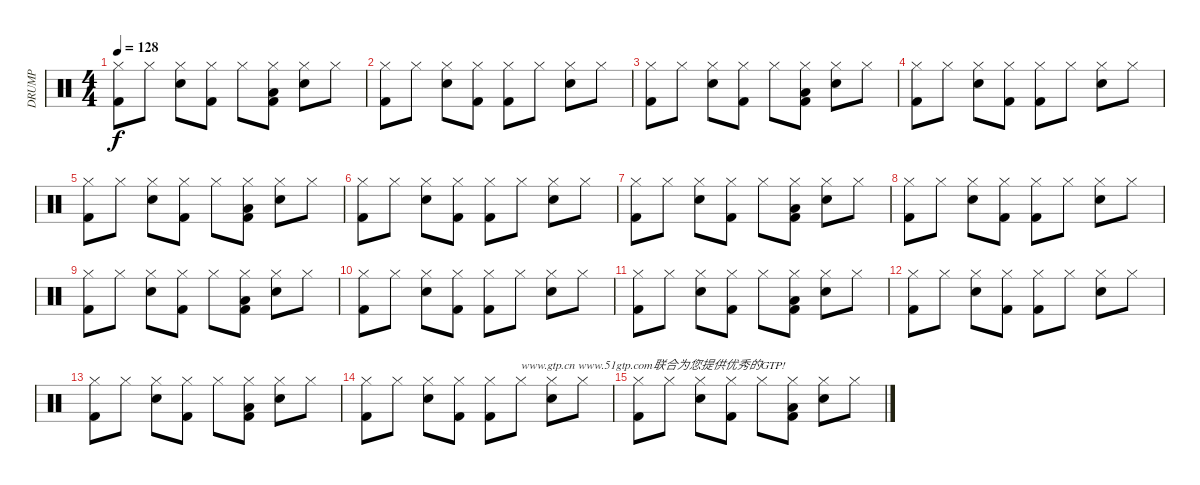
\track ("DRUMP" "DRUMP") {instrument percussion}
\staff {score}
\articulation defaults
\ts (4 4)
\tempo 128
\clef neutral
\ks c
("Hi-Hat (closed)" "Kick (hit) 2").8{dy f} "Hi-Hat (closed)".8 ("Hi-Hat (closed)" "Snare (hit) 2").8 ("Hi-Hat (closed)" "Kick (hit) 2").8 "Hi-Hat (closed)".8 ("Hi-Hat (closed)" "Low Floor Tom (hit)" "Kick (hit) 2").8 ("Hi-Hat (closed)" "Snare (hit) 2").8 "Hi-Hat (closed)".8 |
("Hi-Hat (closed)" "Kick (hit) 2").8 "Hi-Hat (closed)".8 ("Hi-Hat (closed)" "Snare (hit) 2").8 ("Hi-Hat (closed)" "Kick (hit) 2").8 ("Hi-Hat (closed)" "Kick (hit) 2").8 "Hi-Hat (closed)".8 ("Hi-Hat (closed)" "Snare (hit) 2").8 "Hi-Hat (closed)".8 |
("Hi-Hat (closed)" "Kick (hit) 2").8 "Hi-Hat (closed)".8 ("Hi-Hat (closed)" "Snare (hit) 2").8 ("Hi-Hat (closed)" "Kick (hit) 2").8 "Hi-Hat (closed)".8 ("Hi-Hat (closed)" "Low Floor Tom (hit)" "Kick (hit) 2").8 ("Hi-Hat (closed)" "Snare (hit) 2").8 "Hi-Hat (closed)".8 |
("Hi-Hat (closed)" "Kick (hit) 2").8 "Hi-Hat (closed)".8 ("Hi-Hat (closed)" "Snare (hit) 2").8 ("Hi-Hat (closed)" "Kick (hit) 2").8 ("Hi-Hat (closed)" "Kick (hit) 2").8 "Hi-Hat (closed)".8 ("Hi-Hat (closed)" "Snare (hit) 2").8 "Hi-Hat (closed)".8 |
("Hi-Hat (closed)" "Kick (hit) 2").8 "Hi-Hat (closed)".8 ("Hi-Hat (closed)" "Snare (hit) 2").8 ("Hi-Hat (closed)" "Kick (hit) 2").8 "Hi-Hat (closed)".8 ("Hi-Hat (closed)" "Low Floor Tom (hit)" "Kick (hit) 2").8 ("Hi-Hat (closed)" "Snare (hit) 2").8 "Hi-Hat (closed)".8 |
("Hi-Hat (closed)" "Kick (hit) 2").8 "Hi-Hat (closed)".8 ("Hi-Hat (closed)" "Snare (hit) 2").8 ("Hi-Hat (closed)" "Kick (hit) 2").8 ("Hi-Hat (closed)" "Kick (hit) 2").8 "Hi-Hat (closed)".8 ("Hi-Hat (closed)" "Snare (hit) 2").8 "Hi-Hat (closed)".8 |
("Hi-Hat (closed)" "Kick (hit) 2").8 "Hi-Hat (closed)".8 ("Hi-Hat (closed)" "Snare (hit) 2").8 ("Hi-Hat (closed)" "Kick (hit) 2").8 "Hi-Hat (closed)".8 ("Hi-Hat (closed)" "Low Floor Tom (hit)" "Kick (hit) 2").8 ("Hi-Hat (closed)" "Snare (hit) 2").8 "Hi-Hat (closed)".8 |
("Hi-Hat (closed)" "Kick (hit) 2").8 "Hi-Hat (closed)".8 ("Hi-Hat (closed)" "Snare (hit) 2").8 ("Hi-Hat (closed)" "Kick (hit) 2").8 ("Hi-Hat (closed)" "Kick (hit) 2").8 "Hi-Hat (closed)".8 ("Hi-Hat (closed)" "Snare (hit) 2").8 "Hi-Hat (closed)".8 |
("Hi-Hat (closed)" "Kick (hit) 2").8 "Hi-Hat (closed)".8 ("Hi-Hat (closed)" "Snare (hit) 2").8 ("Hi-Hat (closed)" "Kick (hit) 2").8 "Hi-Hat (closed)".8 ("Hi-Hat (closed)" "Low Floor Tom (hit)" "Kick (hit) 2").8 ("Hi-Hat (closed)" "Snare (hit) 2").8 "Hi-Hat (closed)".8 |
("Hi-Hat (closed)" "Kick (hit) 2").8 "Hi-Hat (closed)".8 ("Hi-Hat (closed)" "Snare (hit) 2").8 ("Hi-Hat (closed)" "Kick (hit) 2").8 ("Hi-Hat (closed)" "Kick (hit) 2").8 "Hi-Hat (closed)".8 ("Hi-Hat (closed)" "Snare (hit) 2").8 "Hi-Hat (closed)".8 |
("Hi-Hat (closed)" "Kick (hit) 2").8 "Hi-Hat (closed)".8 ("Hi-Hat (closed)" "Snare (hit) 2").8 ("Hi-Hat (closed)" "Kick (hit) 2").8 "Hi-Hat (closed)".8 ("Hi-Hat (closed)" "Low Floor Tom (hit)" "Kick (hit) 2").8 ("Hi-Hat (closed)" "Snare (hit) 2").8 "Hi-Hat (closed)".8 |
("Hi-Hat (closed)" "Kick (hit) 2").8 "Hi-Hat (closed)".8 ("Hi-Hat (closed)" "Snare (hit) 2").8 ("Hi-Hat (closed)" "Kick (hit) 2").8 ("Hi-Hat (closed)" "Kick (hit) 2").8 "Hi-Hat (closed)".8 ("Hi-Hat (closed)" "Snare (hit) 2").8 "Hi-Hat (closed)".8 |
("Hi-Hat (closed)" "Kick (hit) 2").8 "Hi-Hat (closed)".8 ("Hi-Hat (closed)" "Snare (hit) 2").8 ("Hi-Hat (closed)" "Kick (hit) 2").8 "Hi-Hat (closed)".8 ("Hi-Hat (closed)" "Low Floor Tom (hit)" "Kick (hit) 2").8 ("Hi-Hat (closed)" "Snare (hit) 2").8 "Hi-Hat (closed)".8 |
("Hi-Hat (closed)" "Kick (hit) 2").8 "Hi-Hat (closed)".8 ("Hi-Hat (closed)" "Snare (hit) 2").8 ("Hi-Hat (closed)" "Kick (hit) 2").8 ("Hi-Hat (closed)" "Kick (hit) 2").8 "Hi-Hat (closed)".8{txt "www.gtp.cn www.51gtp.com联合为您提供优秀的GTP!"} ("Hi-Hat (closed)" "Snare (hit) 2").8 "Hi-Hat (closed)".8 |
("Hi-Hat (closed)" "Kick (hit) 2").8 "Hi-Hat (closed)".8 ("Hi-Hat (closed)" "Snare (hit) 2").8 ("Hi-Hat (closed)" "Kick (hit) 2").8 "Hi-Hat (closed)".8 ("Hi-Hat (closed)" "Low Floor Tom (hit)" "Kick (hit) 2").8 ("Hi-Hat (closed)" "Snare (hit) 2").8 "Hi-Hat (closed)".8
